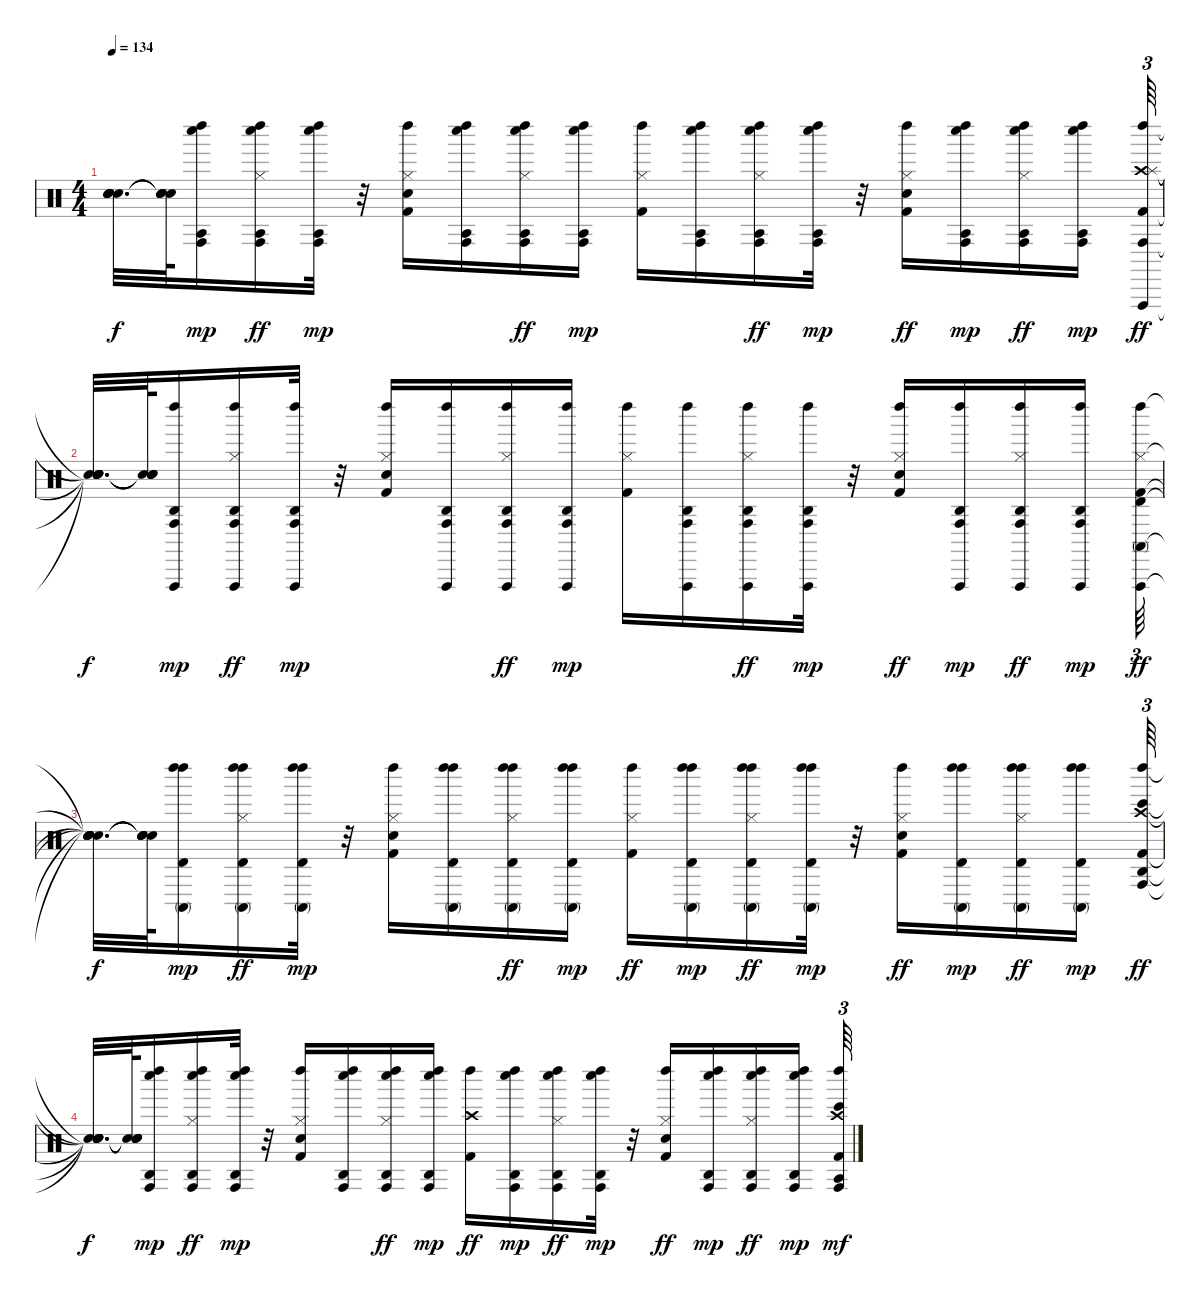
\track "" {instrument percussion}
\staff {score}
\articulation defaults
\ts (4 4)
\tempo 134
\clef neutral
\ks c
("Snare (hit)"{t} "Snare (hit)"{t} "Snare (hit)"{t} "Snare (hit)"{t} "Snare (hit)"{t} "Snare (hit)"{t}).32{d dy f} ("Snare (hit)"{t} "Snare (hit)"{t} "Snare (hit)"{t} "Snare (hit)"{t}).64 ("Conga high (hit)" "Agogo tow (hit)" "Whistle low (hit)" "Left Maraca (hit)").16{dy mp} ("Whistle low (hit)" "Agogo tow (hit)" "Conga high (hit)" "Hi-Hat (closed)" "Left Maraca (hit)").16{dy ff} ("Whistle low (hit)" "Agogo tow (hit)" "Conga high (hit)" "Left Maraca (hit)").32{dy mp} r.32 ("Kick (hit) 2" "Snare (hit) 2" "Hi-Hat (closed)" "Left Maraca (hit)").16 ("Whistle low (hit)" "Agogo tow (hit)" "Conga high (hit)" "Left Maraca (hit)").16 ("Whistle low (hit)" "Agogo tow (hit)" "Conga high (hit)" "Hi-Hat (closed)" "Left Maraca (hit)").16{dy ff} ("Whistle low (hit)" "Agogo tow (hit)" "Conga high (hit)" "Left Maraca (hit)").16{dy mp} ("Kick (hit) 2" "Hi-Hat (closed)" "Left Maraca (hit)").16 ("Whistle low (hit)" "Agogo tow (hit)" "Conga high (hit)" "Left Maraca (hit)").16 ("Whistle low (hit)" "Agogo tow (hit)" "Conga high (hit)" "Left Maraca (hit)" "Hi-Hat (closed)").16{dy ff} ("Whistle low (hit)" "Agogo tow (hit)" "Conga high (hit)" "Left Maraca (hit)").32{dy mp} r.32 ("Left Maraca (hit)" "Hi-Hat (closed)" "Snare (hit) 2" "Kick (hit) 2").16{dy ff} ("Whistle low (hit)" "Agogo tow (hit)" "Conga high (hit)" "Left Maraca (hit)").16{dy mp} ("Whistle low (hit)" "Agogo tow (hit)" "Conga high (hit)" "Left Maraca (hit)" "Hi-Hat (closed)").16{dy ff} ("Whistle low (hit)" "Agogo tow (hit)" "Conga high (hit)" "Left Maraca (hit)").16{dy mp} ("Left Maraca (hit)" "Crash high (hit)" "Kick (hit) 2" "Conga high (hit)" "Vibraslap (hit)" "Splash (hit)").64{tu (3 2) dy ff} |
("Snare (hit)"{t} "Snare (hit)"{t} "Snare (hit)"{t} "Snare (hit)"{t} "Snare (hit)"{t} "Snare (hit)"{t}).32{d dy f} ("Snare (hit)"{t} "Snare (hit)"{t} "Snare (hit)"{t} "Snare (hit)"{t}).64 ("Agogo high (hit)" "Conga high (hit)" "Vibraslap (hit)" "Left Maraca (hit)").16{dy mp} ("Agogo high (hit)" "Conga high (hit)" "Vibraslap (hit)" "Hi-Hat (closed)" "Left Maraca (hit)").16{dy ff} ("Agogo high (hit)" "Conga high (hit)" "Vibraslap (hit)" "Left Maraca (hit)").32{dy mp} r.32 ("Kick (hit) 2" "Snare (hit) 2" "Hi-Hat (closed)" "Left Maraca (hit)").16 ("Agogo high (hit)" "Conga high (hit)" "Vibraslap (hit)" "Left Maraca (hit)").16 ("Agogo high (hit)" "Conga high (hit)" "Vibraslap (hit)" "Hi-Hat (closed)" "Left Maraca (hit)").16{dy ff} ("Agogo high (hit)" "Conga high (hit)" "Vibraslap (hit)" "Left Maraca (hit)").16{dy mp} ("Kick (hit) 2" "Hi-Hat (closed)" "Left Maraca (hit)").16 ("Agogo high (hit)" "Conga high (hit)" "Vibraslap (hit)" "Left Maraca (hit)").16 ("Agogo high (hit)" "Conga high (hit)" "Vibraslap (hit)" "Left Maraca (hit)" "Hi-Hat (closed)").16{dy ff} ("Agogo high (hit)" "Conga high (hit)" "Vibraslap (hit)" "Left Maraca (hit)").32{dy mp} r.32 ("Left Maraca (hit)" "Hi-Hat (closed)" "Snare (hit) 2" "Kick (hit) 2").16{dy ff} ("Agogo high (hit)" "Conga high (hit)" "Vibraslap (hit)" "Left Maraca (hit)").16{dy mp} ("Agogo high (hit)" "Conga high (hit)" "Vibraslap (hit)" "Left Maraca (hit)" "Hi-Hat (closed)").16{dy ff} ("Agogo high (hit)" "Conga high (hit)" "Vibraslap (hit)" "Left Maraca (hit)").16{dy mp} ("Left Maraca (hit)" "Hi-Hat (closed)" "Kick (hit) 2" "Timbale high (hit)" "Conga high (mute)" "Vibraslap (hit)").64{tu (3 2) dy ff} |
("Snare (hit)"{t} "Snare (hit)"{t} "Snare (hit)"{t} "Snare (hit)"{t} "Snare (hit)"{t} "Snare (hit)"{t}).32{d dy f} ("Snare (hit)"{t} "Snare (hit)"{t} "Snare (hit)"{t} "Snare (hit)"{t}).64 ("Left Maraca (hit)" "Timbale high (hit)" "Conga high (mute)" "Left Maraca (hit)").16{dy mp} ("Left Maraca (hit)" "Timbale high (hit)" "Conga high (mute)" "Hi-Hat (closed)" "Left Maraca (hit)").16{dy ff} ("Left Maraca (hit)" "Timbale high (hit)" "Conga high (mute)" "Left Maraca (hit)").32{dy mp} r.32 ("Kick (hit) 2" "Snare (hit) 2" "Hi-Hat (closed)" "Left Maraca (hit)").16 ("Left Maraca (hit)" "Timbale high (hit)" "Conga high (mute)" "Left Maraca (hit)").16 ("Left Maraca (hit)" "Timbale high (hit)" "Conga high (mute)" "Hi-Hat (closed)" "Left Maraca (hit)").16{dy ff} ("Left Maraca (hit)" "Timbale high (hit)" "Conga high (mute)" "Left Maraca (hit)").16{dy mp} ("Left Maraca (hit)" "Hi-Hat (closed)" "Kick (hit) 2").16{dy ff} ("Left Maraca (hit)" "Timbale high (hit)" "Conga high (mute)" "Left Maraca (hit)").16{dy mp} ("Left Maraca (hit)" "Timbale high (hit)" "Conga high (mute)" "Left Maraca (hit)" "Hi-Hat (closed)").16{dy ff} ("Left Maraca (hit)" "Timbale high (hit)" "Conga high (mute)" "Left Maraca (hit)").32{dy mp} r.32 ("Left Maraca (hit)" "Hi-Hat (closed)" "Snare (hit) 2" "Kick (hit) 2").16{dy ff} ("Left Maraca (hit)" "Timbale high (hit)" "Conga high (mute)" "Left Maraca (hit)").16{dy mp} ("Left Maraca (hit)" "Timbale high (hit)" "Conga high (mute)" "Left Maraca (hit)" "Hi-Hat (closed)").16{dy ff} ("Left Maraca (hit)" "Timbale high (hit)" "Conga high (mute)" "Left Maraca (hit)").16{dy mp} ("Kick (hit) 2" "Crash high (hit)" "Left Maraca (hit)" "Agogo high (hit)" "Conga high (hit)" "Bongo High (hit)").64{tu (3 2) dy ff} |
("Snare (hit)"{t} "Snare (hit)"{t} "Snare (hit)"{t} "Snare (hit)"{t} "Snare (hit)"{t} "Snare (hit)"{t}).32{d dy f} ("Snare (hit)"{t} "Snare (hit)"{t} "Snare (hit)"{t} "Snare (hit)"{t}).64 ("Whistle low (hit)" "Agogo high (hit)" "Conga high (hit)" "Left Maraca (hit)").16{dy mp} ("Whistle low (hit)" "Agogo high (hit)" "Conga high (hit)" "Hi-Hat (closed)" "Left Maraca (hit)").16{dy ff} ("Whistle low (hit)" "Agogo high (hit)" "Conga high (hit)" "Left Maraca (hit)").32{dy mp} r.32 ("Kick (hit) 2" "Snare (hit) 2" "Hi-Hat (closed)" "Left Maraca (hit)").16 ("Whistle low (hit)" "Agogo high (hit)" "Conga high (hit)" "Left Maraca (hit)").16 ("Whistle low (hit)" "Agogo high (hit)" "Conga high (hit)" "Hi-Hat (closed)" "Left Maraca (hit)").16{dy ff} ("Whistle low (hit)" "Agogo high (hit)" "Conga high (hit)" "Left Maraca (hit)").16{dy mp} ("Left Maraca (hit)" "Crash high (hit)" "Kick (hit) 2").16{dy ff} ("Whistle low (hit)" "Agogo high (hit)" "Conga high (hit)" "Left Maraca (hit)").16{dy mp} ("Whistle low (hit)" "Agogo high (hit)" "Conga high (hit)" "Left Maraca (hit)" "Hi-Hat (closed)").16{dy ff} ("Whistle low (hit)" "Agogo high (hit)" "Conga high (hit)" "Left Maraca (hit)").32{dy mp} r.32 ("Left Maraca (hit)" "Hi-Hat (closed)" "Snare (hit) 2" "Kick (hit) 2").16{dy ff} ("Whistle low (hit)" "Agogo high (hit)" "Conga high (hit)" "Left Maraca (hit)").16{dy mp} ("Whistle low (hit)" "Agogo high (hit)" "Conga high (hit)" "Left Maraca (hit)" "Hi-Hat (closed)").16{dy ff} ("Whistle low (hit)" "Agogo high (hit)" "Conga high (hit)" "Left Maraca (hit)").16{dy mp} ("Kick (hit) 2" "Crash high (hit)" "Left Maraca (hit)" "Agogo tow (hit)" "Conga high (hit)" "Bongo High (hit)").64{tu (3 2) dy mf}
